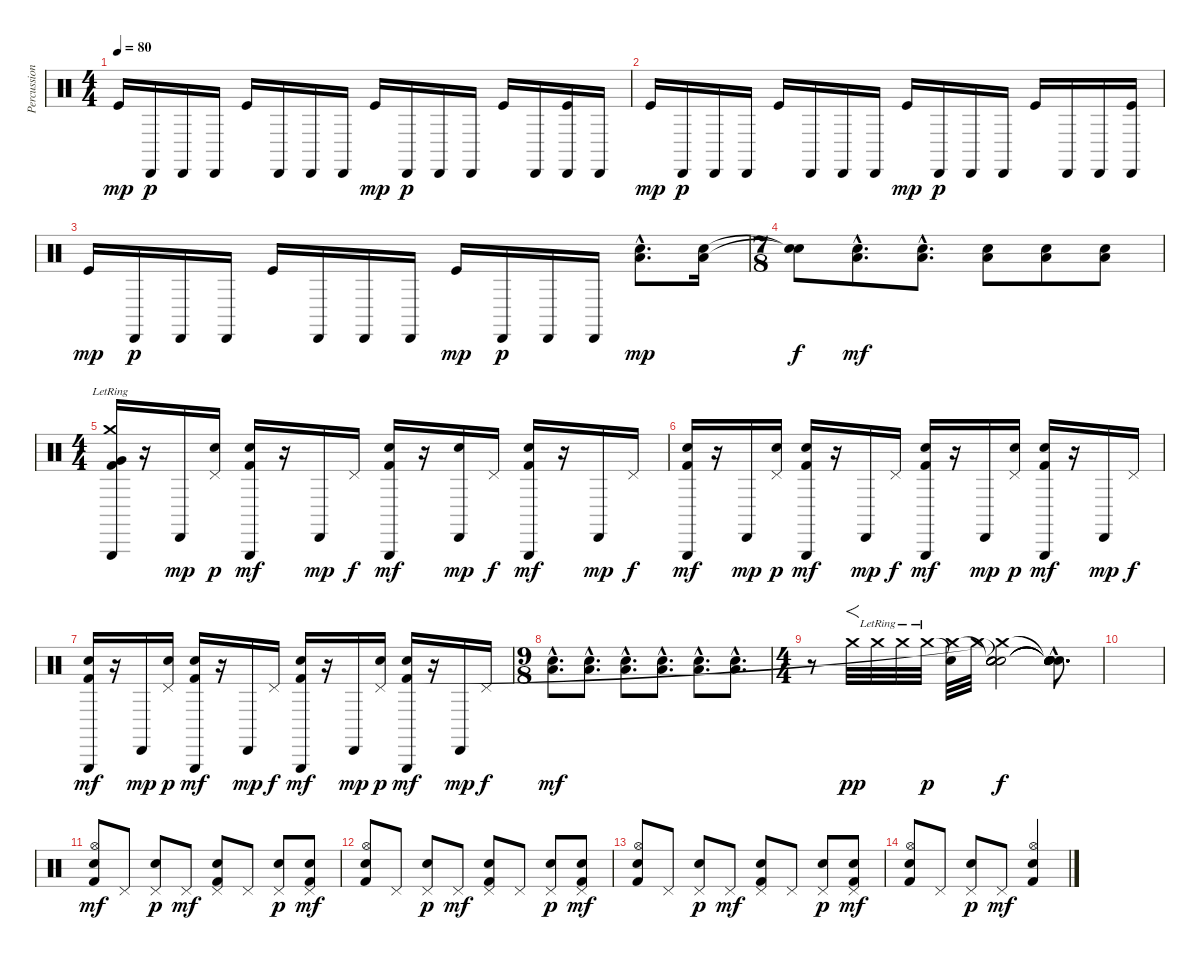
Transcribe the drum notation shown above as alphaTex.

\track ("Percussions" "Percussion") {instrument percussion}
\staff {score}
\articulation defaults
\ts (4 4)
\tempo 80
\clef neutral
\ks c "Kick (hit)".16{dy mp} "Cabasa (hit)".16{dy p} "Cabasa (hit)".16 "Cabasa (hit)".16 "Kick (hit)".16 "Cabasa (hit)".16 "Cabasa (hit)".16 "Cabasa (hit)".16 "Kick (hit)".16{dy mp} "Cabasa (hit)".16{dy p} "Cabasa (hit)".16 "Cabasa (hit)".16 "Kick (hit)".16 "Cabasa (hit)".16
("Kick (hit)" "Cabasa (hit)").16 "Cabasa (hit)".16 |
"Kick (hit)".16{dy mp} "Cabasa (hit)".16{dy p} "Cabasa (hit)".16 "Cabasa (hit)".16 "Kick (hit)".16 "Cabasa (hit)".16 "Cabasa (hit)".16 "Cabasa (hit)".16 "Kick (hit)".16{dy mp} "Cabasa (hit)".16{dy p} "Cabasa (hit)".16 "Cabasa (hit)".16 "Kick (hit)".16 "Cabasa (hit)".16 "Cabasa (hit)".16 ("Kick (hit)" "Cabasa (hit)").16 |
"Kick (hit)".16{dy mp} "Cabasa (hit)".16{dy p} "Cabasa (hit)".16 "Cabasa (hit)".16 "Kick (hit)".16 "Cabasa (hit)".16 "Cabasa (hit)".16 "Cabasa (hit)".16 "Kick (hit)".16{dy mp} "Cabasa (hit)".16{dy p} "Cabasa (hit)".16 "Cabasa (hit)".16 ("Snare (hit) 2"{hac} "Low Floor Tom (hit)"{hac}).8{d dy mp} ("Snare (hit) 2" "Low Floor Tom (hit)").16 |
\ts (7 8)
("Snare (hit)"{t} "Snare (hit)"{t}).8{dy f} ("Snare (hit) 2"{hac} "Low Floor Tom (hit)"{hac}).8{d dy mf} ("Snare (hit) 2"{hac} "Low Floor Tom (hit)"{hac}).8{d} ("Snare (hit) 2" "Low Floor Tom (hit)").8 ("Snare (hit) 2" "Low Floor Tom (hit)").8 ("Snare (hit) 2" "Low Floor Tom (hit)").8 |
\ts (4 4)
("Very Low Tom (hit)" "Crash medium (hit)"{lr} "Triangle (hit)" "Kick (hit) 2").16 r.16 "Cabasa (hit)".16{dy mp} ("Snare (hit) 2" "Pedal Hi-Hat (hit)").16{dy p} ("Snare (hit) 2" "Triangle (hit)" "Kick (hit) 2").16{dy mf} r.16 "Cabasa (hit)".16{dy mp} "Pedal Hi-Hat (hit)".16{dy f} ("Snare (hit) 2" "Triangle (hit)" "Kick (hit) 2").16{dy mf} r.16 ("Snare (hit) 2" "Cabasa (hit)").16{dy mp} "Pedal Hi-Hat (hit)".16{dy f} ("Snare (hit) 2" "Triangle (hit)" "Kick (hit) 2").16{dy mf} r.16 "Cabasa (hit)".16{dy mp} "Pedal Hi-Hat (hit)".16{dy f} |
("Snare (hit) 2" "Triangle (hit)" "Kick (hit) 2").16{dy mf} r.16 "Cabasa (hit)".16{dy mp} ("Snare (hit) 2" "Pedal Hi-Hat (hit)").16{dy p} ("Snare (hit) 2" "Triangle (hit)" "Kick (hit) 2").16{dy mf} r.16 "Cabasa (hit)".16{dy mp} "Pedal Hi-Hat (hit)".16{dy f} ("Snare (hit) 2" "Triangle (hit)" "Kick (hit) 2").16{dy mf} r.16 "Cabasa (hit)".16{dy mp} ("Snare (hit) 2" "Pedal Hi-Hat (hit)").16{dy p} ("Snare (hit) 2" "Triangle (hit)" "Kick (hit) 2").16{dy mf} r.16 "Cabasa (hit)".16{dy mp} "Pedal Hi-Hat (hit)".16{dy f} |
("Snare (hit) 2" "Triangle (hit)" "Kick (hit) 2").16{dy mf} r.16 "Cabasa (hit)".16{dy mp} ("Snare (hit) 2" "Pedal Hi-Hat (hit)").16{dy p} ("Snare (hit) 2" "Triangle (hit)" "Kick (hit) 2").16{dy mf} r.16 "Cabasa (hit)".16{dy mp} "Pedal Hi-Hat (hit)".16{dy f} ("Snare (hit) 2" "Triangle (hit)" "Kick (hit) 2").16{dy mf} r.16 "Cabasa (hit)".16{dy mp} ("Snare (hit) 2" "Pedal Hi-Hat (hit)").16{dy p} ("Snare (hit) 2" "Triangle (hit)" "Kick (hit) 2").16{dy mf} r.16 "Cabasa (hit)".16{dy mp} "Pedal Hi-Hat (hit)".16{dy f} |
\ts (9 8)
("Snare (hit) 2"{hac} "Low Floor Tom (hit)"{hac}).8{d dy mf} ("Snare (hit) 2"{hac} "Low Floor Tom (hit)"{hac}).8{d} ("Snare (hit) 2"{hac} "Low Floor Tom (hit)"{hac}).8{d} ("Snare (hit) 2"{hac} "Low Floor Tom (hit)"{hac}).8{d} ("Snare (hit) 2"{hac} "Low Floor Tom (hit)"{hac}).8{d} ("Snare (hit) 2"{hac} "Low Floor Tom (hit)"{hac}).8{d} |
\ts (4 4)
r.8 "Crash medium (hit)".32{f dy pp} "Crash medium (hit)"{lr}.32 "Crash medium (hit)"{lr}.32 "Crash medium (hit)"{lr}.32{dy p} ("Snare (hit)"{t} "Crash medium (hit)").32 "Crash medium (hit)".32 ("Snare (hit)"{t} "Snare (hit)"{t} "Crash medium (hit)"{t} "Snare (hit)" "Snare (hit)" "Snare (hit)").2{dy f} ("Snare (hit)"{hac t} "Snare (hit)"{hac t} "Snare (hit)"{hac t} "Snare (hit)"{hac t} "Snare (hit)"{hac t} "Snare (hit)"{hac t}).8{d} |
|
("Hi-Hat (open)" "Electric Snare (hit)" "Kick (hit) 2").8{dy mf} "Pedal Hi-Hat (hit)".8 ("Pedal Hi-Hat (hit)" "Snare (hit) 2").8{dy p} "Pedal Hi-Hat (hit)".8{dy mf} ("Pedal Hi-Hat (hit)" "Electric Snare (hit)" "Kick (hit) 2").8 "Pedal Hi-Hat (hit)".8 ("Pedal Hi-Hat (hit)" "Snare (hit) 2").8{dy p} ("Pedal Hi-Hat (hit)" "Electric Snare (hit)" "Kick (hit) 2").8{dy mf} |
("Hi-Hat (open)" "Electric Snare (hit)" "Kick (hit) 2").8 "Pedal Hi-Hat (hit)".8 ("Pedal Hi-Hat (hit)" "Snare (hit) 2").8{dy p} "Pedal Hi-Hat (hit)".8{dy mf} ("Pedal Hi-Hat (hit)" "Electric Snare (hit)" "Kick (hit) 2").8 "Pedal Hi-Hat (hit)".8 ("Pedal Hi-Hat (hit)" "Snare (hit) 2").8{dy p} ("Pedal Hi-Hat (hit)" "Electric Snare (hit)" "Kick (hit) 2").8{dy mf} |
("Hi-Hat (open)" "Electric Snare (hit)" "Kick (hit) 2").8 "Pedal Hi-Hat (hit)".8 ("Pedal Hi-Hat (hit)" "Snare (hit) 2").8{dy p} "Pedal Hi-Hat (hit)".8{dy mf} ("Pedal Hi-Hat (hit)" "Electric Snare (hit)" "Kick (hit) 2").8 "Pedal Hi-Hat (hit)".8 ("Pedal Hi-Hat (hit)" "Snare (hit) 2").8{dy p} ("Pedal Hi-Hat (hit)" "Electric Snare (hit)" "Kick (hit) 2").8{dy mf} |
("Hi-Hat (open)" "Electric Snare (hit)" "Kick (hit) 2").8 "Pedal Hi-Hat (hit)".8 ("Pedal Hi-Hat (hit)" "Snare (hit) 2").8{dy p} "Pedal Hi-Hat (hit)".8{dy mf} ("Hi-Hat (open)" "Electric Snare (hit)" "Kick (hit) 2").4
